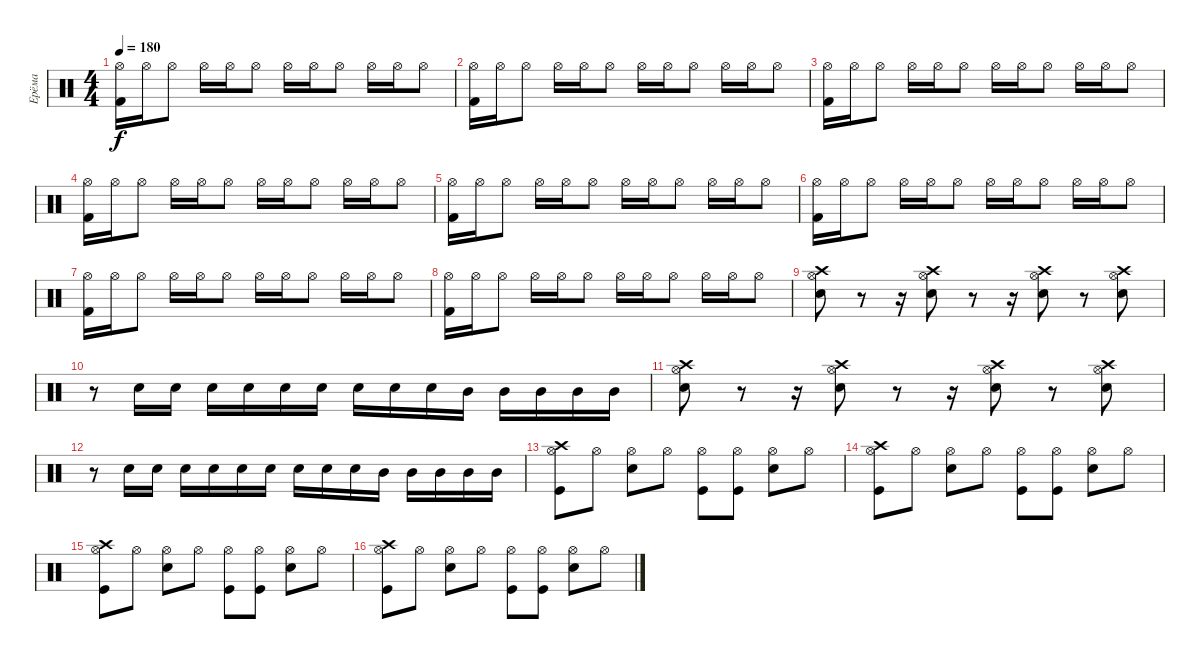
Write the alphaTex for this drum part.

\track ("Ерёма" "Ерёма") {instrument percussion}
\staff {score}
\articulation defaults
\ts (4 4)
\tempo 180
\clef neutral
\ks c
("Hi-Hat (open)" "Kick (hit) 2").16{dy f} "Hi-Hat (open)".16 "Hi-Hat (open)".8 "Hi-Hat (open)".16 "Hi-Hat (open)".16 "Hi-Hat (open)".8 "Hi-Hat (open)".16 "Hi-Hat (open)".16 "Hi-Hat (open)".8 "Hi-Hat (open)".16 "Hi-Hat (open)".16 "Hi-Hat (open)".8 |
("Hi-Hat (open)" "Kick (hit) 2").16 "Hi-Hat (open)".16 "Hi-Hat (open)".8 "Hi-Hat (open)".16 "Hi-Hat (open)".16 "Hi-Hat (open)".8 "Hi-Hat (open)".16 "Hi-Hat (open)".16 "Hi-Hat (open)".8 "Hi-Hat (open)".16 "Hi-Hat (open)".16 "Hi-Hat (open)".8 |
("Hi-Hat (open)" "Kick (hit) 2").16 "Hi-Hat (open)".16 "Hi-Hat (open)".8 "Hi-Hat (open)".16 "Hi-Hat (open)".16 "Hi-Hat (open)".8 "Hi-Hat (open)".16 "Hi-Hat (open)".16 "Hi-Hat (open)".8 "Hi-Hat (open)".16 "Hi-Hat (open)".16 "Hi-Hat (open)".8 |
("Hi-Hat (open)" "Kick (hit) 2").16 "Hi-Hat (open)".16 "Hi-Hat (open)".8 "Hi-Hat (open)".16 "Hi-Hat (open)".16 "Hi-Hat (open)".8 "Hi-Hat (open)".16 "Hi-Hat (open)".16 "Hi-Hat (open)".8 "Hi-Hat (open)".16 "Hi-Hat (open)".16 "Hi-Hat (open)".8 |
("Hi-Hat (open)" "Kick (hit) 2").16 "Hi-Hat (open)".16 "Hi-Hat (open)".8 "Hi-Hat (open)".16 "Hi-Hat (open)".16 "Hi-Hat (open)".8 "Hi-Hat (open)".16 "Hi-Hat (open)".16 "Hi-Hat (open)".8 "Hi-Hat (open)".16 "Hi-Hat (open)".16 "Hi-Hat (open)".8 |
("Hi-Hat (open)" "Kick (hit) 2").16 "Hi-Hat (open)".16 "Hi-Hat (open)".8 "Hi-Hat (open)".16 "Hi-Hat (open)".16 "Hi-Hat (open)".8 "Hi-Hat (open)".16 "Hi-Hat (open)".16 "Hi-Hat (open)".8 "Hi-Hat (open)".16 "Hi-Hat (open)".16 "Hi-Hat (open)".8 |
("Hi-Hat (open)" "Kick (hit) 2").16 "Hi-Hat (open)".16 "Hi-Hat (open)".8 "Hi-Hat (open)".16 "Hi-Hat (open)".16 "Hi-Hat (open)".8 "Hi-Hat (open)".16 "Hi-Hat (open)".16 "Hi-Hat (open)".8 "Hi-Hat (open)".16 "Hi-Hat (open)".16 "Hi-Hat (open)".8 |
("Hi-Hat (open)" "Kick (hit) 2").16 "Hi-Hat (open)".16 "Hi-Hat (open)".8 "Hi-Hat (open)".16 "Hi-Hat (open)".16 "Hi-Hat (open)".8 "Hi-Hat (open)".16 "Hi-Hat (open)".16 "Hi-Hat (open)".8 "Hi-Hat (open)".16 "Hi-Hat (open)".16 "Hi-Hat (open)".8 |
("Hi-Hat (open)" "Electric Snare (hit)" "Crash high (hit)").8 r.8 r.16 ("Electric Snare (hit)" "Crash high (hit)" "Hi-Hat (open)").8 r.8 r.16 ("Electric Snare (hit)" "Crash high (hit)" "Hi-Hat (open)").8 r.8 ("Electric Snare (hit)" "Crash high (hit)" "Hi-Hat (open)").8 |
r.8 "Electric Snare (hit)".16 "Electric Snare (hit)".16 "Electric Snare (hit)".16 "Electric Snare (hit)".16 "Snare (hit) 2".16 "Snare (hit) 2".16 "Snare (hit) 2".16 "Snare (hit) 2".16 "Snare (hit) 2".16 "Mid Tom (hit)".16 "Mid Tom (hit)".16 "Mid Tom (hit)".16 "Mid Tom (hit)".16 "Mid Tom (hit)".16 |
("Hi-Hat (open)" "Electric Snare (hit)" "Crash high (hit)").8 r.8 r.16 ("Electric Snare (hit)" "Crash high (hit)" "Hi-Hat (open)").8 r.8 r.16 ("Electric Snare (hit)" "Crash high (hit)" "Hi-Hat (open)").8 r.8 ("Electric Snare (hit)" "Crash high (hit)" "Hi-Hat (open)").8 |
r.8 "Electric Snare (hit)".16 "Electric Snare (hit)".16 "Electric Snare (hit)".16 "Electric Snare (hit)".16 "Snare (hit) 2".16 "Snare (hit) 2".16 "Snare (hit) 2".16 "Snare (hit) 2".16 "Snare (hit) 2".16 "Mid Tom (hit)".16 "Mid Tom (hit)".16 "Mid Tom (hit)".16 "Mid Tom (hit)".16 "Mid Tom (hit)".16 |
("Hi-Hat (open)" "Kick (hit)" "Crash high (hit)").8 "Hi-Hat (open)".8 ("Hi-Hat (open)" "Electric Snare (hit)").8 "Hi-Hat (open)".8 ("Hi-Hat (open)" "Kick (hit)").8 ("Hi-Hat (open)" "Kick (hit)").8 ("Hi-Hat (open)" "Electric Snare (hit)").8 "Hi-Hat (open)".8 |
("Hi-Hat (open)" "Kick (hit)" "Crash high (hit)").8 "Hi-Hat (open)".8 ("Hi-Hat (open)" "Electric Snare (hit)").8 "Hi-Hat (open)".8 ("Hi-Hat (open)" "Kick (hit)").8 ("Hi-Hat (open)" "Kick (hit)").8 ("Hi-Hat (open)" "Electric Snare (hit)").8 "Hi-Hat (open)".8 |
("Hi-Hat (open)" "Kick (hit)" "Crash high (hit)").8 "Hi-Hat (open)".8 ("Hi-Hat (open)" "Electric Snare (hit)").8 "Hi-Hat (open)".8 ("Hi-Hat (open)" "Kick (hit)").8 ("Hi-Hat (open)" "Kick (hit)").8 ("Hi-Hat (open)" "Electric Snare (hit)").8 "Hi-Hat (open)".8 |
("Hi-Hat (open)" "Kick (hit)" "Crash high (hit)").8 "Hi-Hat (open)".8 ("Hi-Hat (open)" "Electric Snare (hit)").8 "Hi-Hat (open)".8 ("Hi-Hat (open)" "Kick (hit)").8 ("Hi-Hat (open)" "Kick (hit)").8 ("Hi-Hat (open)" "Electric Snare (hit)").8 "Hi-Hat (open)".8
